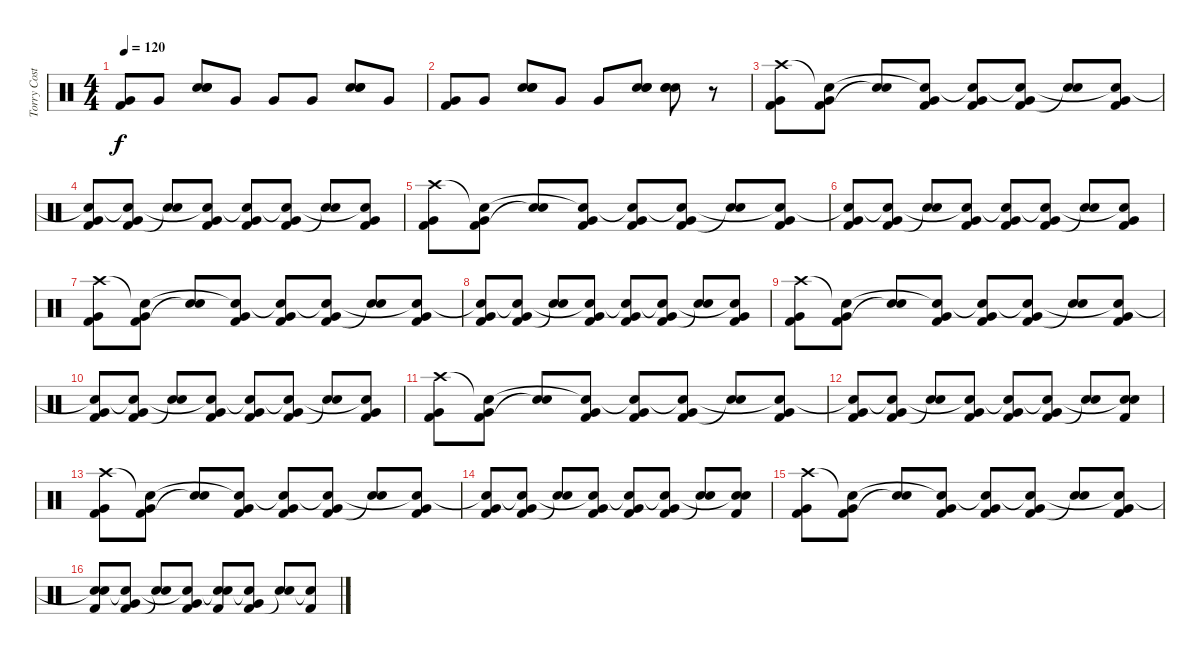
\track ("Torry Costellano" "Torry Cost") {instrument percussion}
\staff {score}
\articulation defaults
\ts (4 4)
\tempo 120
\clef neutral
\ks c
("Very Low Tom (hit)" "Kick (hit) 2").8{dy f} "Very Low Tom (hit)".8 ("Hand Clap (hit)" "Hand Clap (hit)" "Electric Snare (hit)").8 "Very Low Tom (hit)".8 "Very Low Tom (hit)".8 "Very Low Tom (hit)".8 ("Hand Clap (hit)" "Hand Clap (hit)" "Electric Snare (hit)").8 "Very Low Tom (hit)".8 |
("Very Low Tom (hit)" "Kick (hit) 2").8 "Very Low Tom (hit)".8 ("Hand Clap (hit)" "Hand Clap (hit)" "Electric Snare (hit)").8 "Very Low Tom (hit)".8 "Very Low Tom (hit)".8 ("Hand Clap (hit)" "Hand Clap (hit)" "Electric Snare (hit)").8 ("Hand Clap (hit)" "Hand Clap (hit)" "Electric Snare (hit)").8 r.8 |
("Very Low Tom (hit)" "Kick (hit) 2" "Crash high (hit)").8 ("Very Low Tom (hit)" "Kick (hit) 2" "Snare (hit)"{t}).8 ("Electric Snare (hit)" "Snare (hit)"{t}).8 ("Very Low Tom (hit)" "Kick (hit) 2" "Snare (hit)"{t}).8 ("Very Low Tom (hit)" "Kick (hit) 2" "Snare (hit)"{t}).8 ("Very Low Tom (hit)" "Kick (hit) 2" "Snare (hit)"{t}).8 ("Electric Snare (hit)" "Snare (hit)"{t}).8 ("Very Low Tom (hit)" "Kick (hit) 2" "Snare (hit)"{t}).8 |
("Very Low Tom (hit)" "Kick (hit) 2" "Snare (hit)"{t}).8 ("Very Low Tom (hit)" "Kick (hit) 2" "Snare (hit)"{t}).8 ("Electric Snare (hit)" "Snare (hit)"{t}).8 ("Very Low Tom (hit)" "Kick (hit) 2" "Snare (hit)"{t}).8 ("Very Low Tom (hit)" "Kick (hit) 2" "Snare (hit)"{t}).8 ("Very Low Tom (hit)" "Kick (hit) 2" "Snare (hit)"{t}).8 ("Electric Snare (hit)" "Snare (hit)"{t}).8 ("Very Low Tom (hit)" "Kick (hit) 2" "Snare (hit)"{t}).8 |
("Very Low Tom (hit)" "Kick (hit) 2" "Crash high (hit)").8 ("Very Low Tom (hit)" "Kick (hit) 2" "Snare (hit)"{t}).8 ("Electric Snare (hit)" "Snare (hit)"{t}).8 ("Very Low Tom (hit)" "Kick (hit) 2" "Snare (hit)"{t}).8 ("Very Low Tom (hit)" "Kick (hit) 2" "Snare (hit)"{t}).8 ("Very Low Tom (hit)" "Kick (hit) 2" "Snare (hit)"{t}).8 ("Electric Snare (hit)" "Snare (hit)"{t}).8 ("Very Low Tom (hit)" "Kick (hit) 2" "Snare (hit)"{t}).8 |
("Very Low Tom (hit)" "Kick (hit) 2" "Snare (hit)"{t}).8 ("Very Low Tom (hit)" "Kick (hit) 2" "Snare (hit)"{t}).8 ("Electric Snare (hit)" "Snare (hit)"{t}).8 ("Very Low Tom (hit)" "Kick (hit) 2" "Snare (hit)"{t}).8 ("Very Low Tom (hit)" "Kick (hit) 2" "Snare (hit)"{t}).8 ("Very Low Tom (hit)" "Kick (hit) 2" "Snare (hit)"{t}).8 ("Electric Snare (hit)" "Snare (hit)"{t}).8 ("Very Low Tom (hit)" "Kick (hit) 2" "Snare (hit)"{t}).8 |
("Very Low Tom (hit)" "Kick (hit) 2" "Crash high (hit)").8 ("Very Low Tom (hit)" "Kick (hit) 2" "Snare (hit)"{t}).8 ("Electric Snare (hit)" "Snare (hit)"{t}).8 ("Very Low Tom (hit)" "Kick (hit) 2" "Snare (hit)"{t}).8 ("Very Low Tom (hit)" "Kick (hit) 2" "Snare (hit)"{t}).8 ("Very Low Tom (hit)" "Kick (hit) 2" "Snare (hit)"{t}).8 ("Electric Snare (hit)" "Snare (hit)"{t}).8 ("Very Low Tom (hit)" "Kick (hit) 2" "Snare (hit)"{t}).8 |
("Very Low Tom (hit)" "Kick (hit) 2" "Snare (hit)"{t}).8 ("Very Low Tom (hit)" "Kick (hit) 2" "Snare (hit)"{t}).8 ("Electric Snare (hit)" "Snare (hit)"{t}).8 ("Very Low Tom (hit)" "Kick (hit) 2" "Snare (hit)"{t}).8 ("Very Low Tom (hit)" "Kick (hit) 2" "Snare (hit)"{t}).8 ("Very Low Tom (hit)" "Kick (hit) 2" "Snare (hit)"{t}).8 ("Electric Snare (hit)" "Snare (hit)"{t}).8 ("Very Low Tom (hit)" "Kick (hit) 2" "Snare (hit)"{t}).8 |
("Very Low Tom (hit)" "Kick (hit) 2" "Crash high (hit)").8 ("Very Low Tom (hit)" "Kick (hit) 2" "Snare (hit)"{t}).8 ("Electric Snare (hit)" "Snare (hit)"{t}).8 ("Very Low Tom (hit)" "Kick (hit) 2" "Snare (hit)"{t}).8 ("Very Low Tom (hit)" "Kick (hit) 2" "Snare (hit)"{t}).8 ("Very Low Tom (hit)" "Kick (hit) 2" "Snare (hit)"{t}).8 ("Electric Snare (hit)" "Snare (hit)"{t}).8 ("Very Low Tom (hit)" "Kick (hit) 2" "Snare (hit)"{t}).8 |
("Very Low Tom (hit)" "Kick (hit) 2" "Snare (hit)"{t}).8 ("Very Low Tom (hit)" "Kick (hit) 2" "Snare (hit)"{t}).8 ("Electric Snare (hit)" "Snare (hit)"{t}).8 ("Very Low Tom (hit)" "Kick (hit) 2" "Snare (hit)"{t}).8 ("Very Low Tom (hit)" "Kick (hit) 2" "Snare (hit)"{t}).8 ("Very Low Tom (hit)" "Kick (hit) 2" "Snare (hit)"{t}).8 ("Electric Snare (hit)" "Snare (hit)"{t}).8 ("Very Low Tom (hit)" "Kick (hit) 2" "Snare (hit)"{t}).8 |
("Very Low Tom (hit)" "Kick (hit) 2" "Crash high (hit)").8 ("Very Low Tom (hit)" "Kick (hit) 2" "Snare (hit)"{t}).8 ("Electric Snare (hit)" "Snare (hit)"{t}).8 ("Very Low Tom (hit)" "Kick (hit) 2" "Snare (hit)"{t}).8 ("Very Low Tom (hit)" "Kick (hit) 2" "Snare (hit)"{t}).8 ("Very Low Tom (hit)" "Kick (hit) 2" "Snare (hit)"{t}).8 ("Electric Snare (hit)" "Snare (hit)"{t}).8 ("Very Low Tom (hit)" "Kick (hit) 2" "Snare (hit)"{t}).8 |
("Very Low Tom (hit)" "Kick (hit) 2" "Snare (hit)"{t}).8 ("Very Low Tom (hit)" "Kick (hit) 2" "Snare (hit)"{t}).8 ("Electric Snare (hit)" "Snare (hit)"{t}).8 ("Very Low Tom (hit)" "Kick (hit) 2" "Snare (hit)"{t}).8 ("Very Low Tom (hit)" "Kick (hit) 2" "Snare (hit)"{t}).8 ("Very Low Tom (hit)" "Kick (hit) 2" "Snare (hit)"{t}).8 ("Electric Snare (hit)" "Snare (hit)"{t}).8 ("Electric Snare (hit)" "Kick (hit) 2" "Snare (hit)"{t}).8 |
("Very Low Tom (hit)" "Kick (hit) 2" "Crash high (hit)").8 ("Very Low Tom (hit)" "Kick (hit) 2" "Snare (hit)"{t}).8 ("Electric Snare (hit)" "Snare (hit)"{t}).8 ("Very Low Tom (hit)" "Kick (hit) 2" "Snare (hit)"{t}).8 ("Very Low Tom (hit)" "Kick (hit) 2" "Snare (hit)"{t}).8 ("Very Low Tom (hit)" "Kick (hit) 2" "Snare (hit)"{t}).8 ("Electric Snare (hit)" "Snare (hit)"{t}).8 ("Very Low Tom (hit)" "Kick (hit) 2" "Snare (hit)"{t}).8 |
("Very Low Tom (hit)" "Kick (hit) 2" "Snare (hit)"{t}).8 ("Very Low Tom (hit)" "Kick (hit) 2" "Snare (hit)"{t}).8 ("Electric Snare (hit)" "Snare (hit)"{t}).8 ("Very Low Tom (hit)" "Kick (hit) 2" "Snare (hit)"{t}).8 ("Very Low Tom (hit)" "Kick (hit) 2" "Snare (hit)"{t}).8 ("Very Low Tom (hit)" "Kick (hit) 2" "Snare (hit)"{t}).8 ("Electric Snare (hit)" "Snare (hit)"{t}).8 ("Electric Snare (hit)" "Kick (hit) 2" "Snare (hit)"{t}).8 |
("Very Low Tom (hit)" "Kick (hit) 2" "Crash high (hit)").8 ("Very Low Tom (hit)" "Kick (hit) 2" "Snare (hit)"{t}).8 ("Electric Snare (hit)" "Snare (hit)"{t}).8 ("Very Low Tom (hit)" "Kick (hit) 2" "Snare (hit)"{t}).8 ("Very Low Tom (hit)" "Kick (hit) 2" "Snare (hit)"{t}).8 ("Very Low Tom (hit)" "Kick (hit) 2" "Snare (hit)"{t}).8 ("Electric Snare (hit)" "Snare (hit)"{t}).8 ("Very Low Tom (hit)" "Kick (hit) 2" "Snare (hit)"{t}).8 |
("Electric Snare (hit)" "Kick (hit) 2" "Snare (hit)"{t}).8 ("Very Low Tom (hit)" "Kick (hit) 2" "Snare (hit)"{t}).8 ("Electric Snare (hit)" "Snare (hit)"{t}).8 ("Very Low Tom (hit)" "Kick (hit) 2" "Snare (hit)"{t}).8 ("Electric Snare (hit)" "Kick (hit) 2" "Snare (hit)"{t}).8 ("Very Low Tom (hit)" "Kick (hit) 2" "Snare (hit)"{t}).8 ("Electric Snare (hit)" "Snare (hit)"{t}).8 ("Kick (hit) 2" "Snare (hit)"{t}).8
